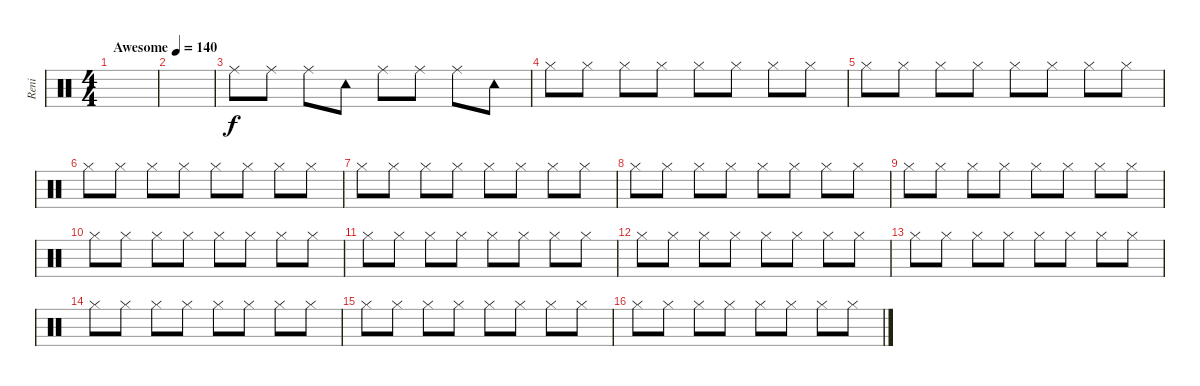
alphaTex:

\track ("Reni" "Reni") {instrument percussion}
\staff {score}
\articulation defaults
\ts (4 4)
\tempo (140 "Awesome")
\clef neutral
\ks c
|
|
"Ride (middle)".8 "Ride (middle)".8 "Ride (middle)".8 "Tambourine (hit)".8 "Ride (middle)".8 "Ride (middle)".8 "Ride (middle)".8 "Tambourine (hit)".8 |
"Hi-Hat (closed)".8 "Hi-Hat (closed)".8 "Hi-Hat (closed)".8 "Hi-Hat (closed)".8 "Hi-Hat (closed)".8 "Hi-Hat (closed)".8 "Hi-Hat (closed)".8 "Hi-Hat (closed)".8 |
"Hi-Hat (closed)".8 "Hi-Hat (closed)".8 "Hi-Hat (closed)".8 "Hi-Hat (closed)".8 "Hi-Hat (closed)".8 "Hi-Hat (closed)".8 "Hi-Hat (closed)".8 "Hi-Hat (closed)".8 |
"Hi-Hat (closed)".8 "Hi-Hat (closed)".8 "Hi-Hat (closed)".8 "Hi-Hat (closed)".8 "Hi-Hat (closed)".8 "Hi-Hat (closed)".8 "Hi-Hat (closed)".8 "Hi-Hat (closed)".8 |
"Hi-Hat (closed)".8 "Hi-Hat (closed)".8 "Hi-Hat (closed)".8 "Hi-Hat (closed)".8 "Hi-Hat (closed)".8 "Hi-Hat (closed)".8 "Hi-Hat (closed)".8 "Hi-Hat (closed)".8 |
"Hi-Hat (closed)".8 "Hi-Hat (closed)".8 "Hi-Hat (closed)".8 "Hi-Hat (closed)".8 "Hi-Hat (closed)".8 "Hi-Hat (closed)".8 "Hi-Hat (closed)".8 "Hi-Hat (closed)".8 |
"Hi-Hat (closed)".8 "Hi-Hat (closed)".8 "Hi-Hat (closed)".8 "Hi-Hat (closed)".8 "Hi-Hat (closed)".8 "Hi-Hat (closed)".8 "Hi-Hat (closed)".8 "Hi-Hat (closed)".8 |
"Hi-Hat (closed)".8 "Hi-Hat (closed)".8 "Hi-Hat (closed)".8 "Hi-Hat (closed)".8 "Hi-Hat (closed)".8 "Hi-Hat (closed)".8 "Hi-Hat (closed)".8 "Hi-Hat (closed)".8 |
"Hi-Hat (closed)".8 "Hi-Hat (closed)".8 "Hi-Hat (closed)".8 "Hi-Hat (closed)".8 "Hi-Hat (closed)".8 "Hi-Hat (closed)".8 "Hi-Hat (closed)".8 "Hi-Hat (closed)".8 |
"Hi-Hat (closed)".8 "Hi-Hat (closed)".8 "Hi-Hat (closed)".8 "Hi-Hat (closed)".8 "Hi-Hat (closed)".8 "Hi-Hat (closed)".8 "Hi-Hat (closed)".8 "Hi-Hat (closed)".8 |
"Hi-Hat (closed)".8 "Hi-Hat (closed)".8 "Hi-Hat (closed)".8 "Hi-Hat (closed)".8 "Hi-Hat (closed)".8 "Hi-Hat (closed)".8 "Hi-Hat (closed)".8 "Hi-Hat (closed)".8 |
"Hi-Hat (closed)".8 "Hi-Hat (closed)".8 "Hi-Hat (closed)".8 "Hi-Hat (closed)".8 "Hi-Hat (closed)".8 "Hi-Hat (closed)".8 "Hi-Hat (closed)".8 "Hi-Hat (closed)".8 |
"Hi-Hat (closed)".8 "Hi-Hat (closed)".8 "Hi-Hat (closed)".8 "Hi-Hat (closed)".8 "Hi-Hat (closed)".8 "Hi-Hat (closed)".8 "Hi-Hat (closed)".8 "Hi-Hat (closed)".8 |
"Hi-Hat (closed)".8 "Hi-Hat (closed)".8 "Hi-Hat (closed)".8 "Hi-Hat (closed)".8 "Hi-Hat (closed)".8 "Hi-Hat (closed)".8 "Hi-Hat (closed)".8 "Hi-Hat (closed)".8
